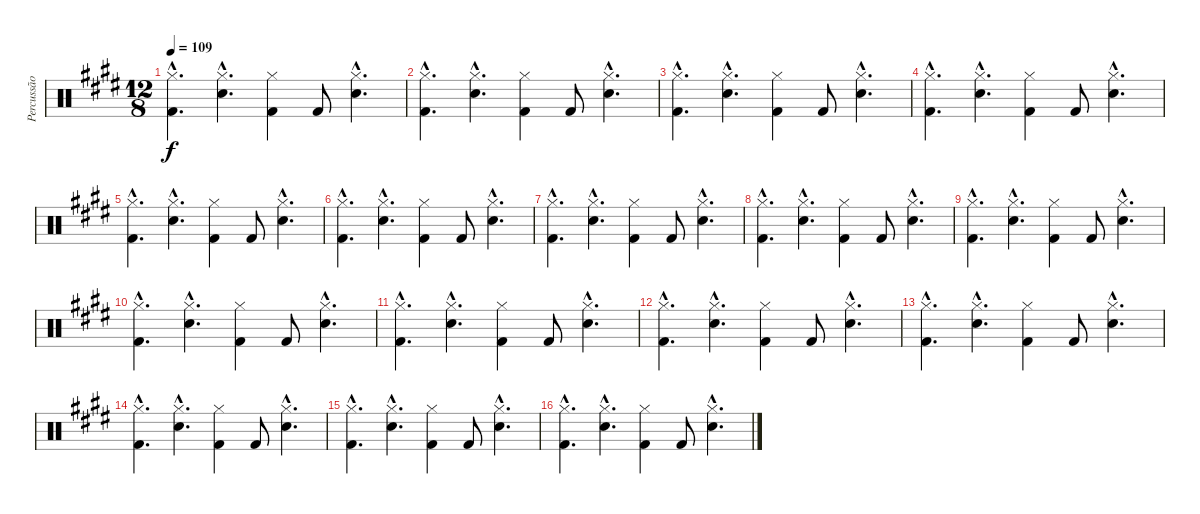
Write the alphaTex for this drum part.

\track ("Percussão" "Percussão") {instrument percussion}
\staff {score}
\articulation defaults
\ts (12 8)
\tempo 109
\clef neutral
\ks e
("Hi-Hat (closed)"{hac} "Kick (hit) 2"{hac}).4{d dy f} ("Hi-Hat (closed)"{hac} "Electric Snare (hit)"{hac}).4{d} ("Hi-Hat (closed)" "Kick (hit) 2").4 "Kick (hit) 2".8 ("Hi-Hat (closed)"{hac} "Electric Snare (hit)"{hac}).4{d} |
("Hi-Hat (closed)"{hac} "Kick (hit) 2"{hac}).4{d} ("Hi-Hat (closed)"{hac} "Electric Snare (hit)"{hac}).4{d} ("Hi-Hat (closed)" "Kick (hit) 2").4 "Kick (hit) 2".8 ("Hi-Hat (closed)"{hac} "Electric Snare (hit)"{hac}).4{d} |
("Hi-Hat (closed)"{hac} "Kick (hit) 2"{hac}).4{d} ("Hi-Hat (closed)"{hac} "Electric Snare (hit)"{hac}).4{d} ("Hi-Hat (closed)" "Kick (hit) 2").4 "Kick (hit) 2".8 ("Hi-Hat (closed)"{hac} "Electric Snare (hit)"{hac}).4{d} |
("Hi-Hat (closed)"{hac} "Kick (hit) 2"{hac}).4{d} ("Hi-Hat (closed)"{hac} "Electric Snare (hit)"{hac}).4{d} ("Hi-Hat (closed)" "Kick (hit) 2").4 "Kick (hit) 2".8 ("Hi-Hat (closed)"{hac} "Electric Snare (hit)"{hac}).4{d} |
("Hi-Hat (closed)"{hac} "Kick (hit) 2"{hac}).4{d} ("Hi-Hat (closed)"{hac} "Electric Snare (hit)"{hac}).4{d} ("Hi-Hat (closed)" "Kick (hit) 2").4 "Kick (hit) 2".8 ("Hi-Hat (closed)"{hac} "Electric Snare (hit)"{hac}).4{d} |
("Hi-Hat (closed)"{hac} "Kick (hit) 2"{hac}).4{d} ("Hi-Hat (closed)"{hac} "Electric Snare (hit)"{hac}).4{d} ("Hi-Hat (closed)" "Kick (hit) 2").4 "Kick (hit) 2".8 ("Hi-Hat (closed)"{hac} "Electric Snare (hit)"{hac}).4{d} |
("Hi-Hat (closed)"{hac} "Kick (hit) 2"{hac}).4{d} ("Hi-Hat (closed)"{hac} "Electric Snare (hit)"{hac}).4{d} ("Hi-Hat (closed)" "Kick (hit) 2").4 "Kick (hit) 2".8 ("Hi-Hat (closed)"{hac} "Electric Snare (hit)"{hac}).4{d} |
("Hi-Hat (closed)"{hac} "Kick (hit) 2"{hac}).4{d} ("Hi-Hat (closed)"{hac} "Electric Snare (hit)"{hac}).4{d} ("Hi-Hat (closed)" "Kick (hit) 2").4 "Kick (hit) 2".8 ("Hi-Hat (closed)"{hac} "Electric Snare (hit)"{hac}).4{d} |
("Hi-Hat (closed)"{hac} "Kick (hit) 2"{hac}).4{d} ("Hi-Hat (closed)"{hac} "Electric Snare (hit)"{hac}).4{d} ("Hi-Hat (closed)" "Kick (hit) 2").4 "Kick (hit) 2".8 ("Hi-Hat (closed)"{hac} "Electric Snare (hit)"{hac}).4{d} |
("Hi-Hat (closed)"{hac} "Kick (hit) 2"{hac}).4{d} ("Hi-Hat (closed)"{hac} "Electric Snare (hit)"{hac}).4{d} ("Hi-Hat (closed)" "Kick (hit) 2").4 "Kick (hit) 2".8 ("Hi-Hat (closed)"{hac} "Electric Snare (hit)"{hac}).4{d} |
("Hi-Hat (closed)"{hac} "Kick (hit) 2"{hac}).4{d} ("Hi-Hat (closed)"{hac} "Electric Snare (hit)"{hac}).4{d} ("Hi-Hat (closed)" "Kick (hit) 2").4 "Kick (hit) 2".8 ("Hi-Hat (closed)"{hac} "Electric Snare (hit)"{hac}).4{d} |
("Hi-Hat (closed)"{hac} "Kick (hit) 2"{hac}).4{d} ("Hi-Hat (closed)"{hac} "Electric Snare (hit)"{hac}).4{d} ("Hi-Hat (closed)" "Kick (hit) 2").4 "Kick (hit) 2".8 ("Hi-Hat (closed)"{hac} "Electric Snare (hit)"{hac}).4{d} |
("Hi-Hat (closed)"{hac} "Kick (hit) 2"{hac}).4{d} ("Hi-Hat (closed)"{hac} "Electric Snare (hit)"{hac}).4{d} ("Hi-Hat (closed)" "Kick (hit) 2").4 "Kick (hit) 2".8 ("Hi-Hat (closed)"{hac} "Electric Snare (hit)"{hac}).4{d} |
("Hi-Hat (closed)"{hac} "Kick (hit) 2"{hac}).4{d} ("Hi-Hat (closed)"{hac} "Electric Snare (hit)"{hac}).4{d} ("Hi-Hat (closed)" "Kick (hit) 2").4 "Kick (hit) 2".8 ("Hi-Hat (closed)"{hac} "Electric Snare (hit)"{hac}).4{d} |
("Hi-Hat (closed)"{hac} "Kick (hit) 2"{hac}).4{d} ("Hi-Hat (closed)"{hac} "Electric Snare (hit)"{hac}).4{d} ("Hi-Hat (closed)" "Kick (hit) 2").4 "Kick (hit) 2".8 ("Hi-Hat (closed)"{hac} "Electric Snare (hit)"{hac}).4{d} |
("Hi-Hat (closed)"{hac} "Kick (hit) 2"{hac}).4{d} ("Hi-Hat (closed)"{hac} "Electric Snare (hit)"{hac}).4{d} ("Hi-Hat (closed)" "Kick (hit) 2").4 "Kick (hit) 2".8 ("Hi-Hat (closed)"{hac} "Electric Snare (hit)"{hac}).4{d}
